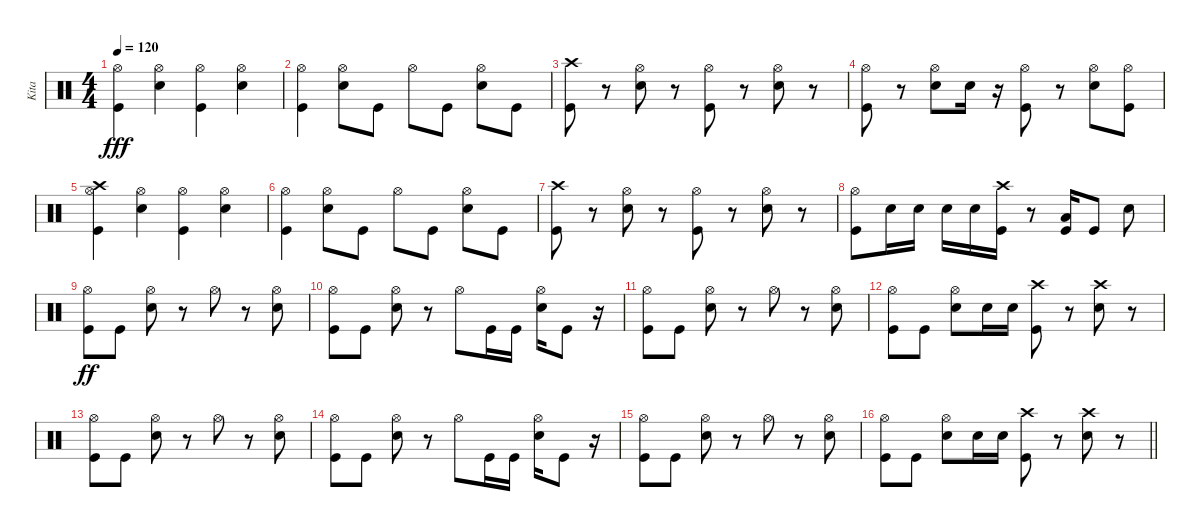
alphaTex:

\track ("Kita" "Kita") {instrument percussion}
\staff {score}
\articulation defaults
\ts (4 4)
\tempo 120
\clef neutral
\ks c
("Hi-Hat (open)" "Kick (hit)").4{dy fff} ("Hi-Hat (open)" "Snare (hit) 2").4 ("Hi-Hat (open)" "Kick (hit)").4 ("Hi-Hat (open)" "Snare (hit) 2").4 |
("Hi-Hat (open)" "Kick (hit)").4 ("Hi-Hat (open)" "Snare (hit) 2").8 "Kick (hit)".8 "Hi-Hat (open)".8 "Kick (hit)".8 ("Snare (hit) 2" "Hi-Hat (open)").8 "Kick (hit)".8 |
("Kick (hit)" "Crash high (hit)").8 r.8 ("Hi-Hat (open)" "Snare (hit) 2").8 r.8 ("Hi-Hat (open)" "Kick (hit)").8 r.8 ("Hi-Hat (open)" "Snare (hit) 2").8 r.8 |
("Hi-Hat (open)" "Kick (hit)").8 r.8 ("Hi-Hat (open)" "Snare (hit) 2").8 "Snare (hit) 2".16 r.16 ("Hi-Hat (open)" "Kick (hit)").8 r.8 ("Hi-Hat (open)" "Snare (hit) 2").8 ("Kick (hit)" "Hi-Hat (open)").8 |
("Hi-Hat (open)" "Kick (hit)" "Crash high (hit)").4 ("Hi-Hat (open)" "Snare (hit) 2").4 ("Hi-Hat (open)" "Kick (hit)").4 ("Hi-Hat (open)" "Snare (hit) 2").4 |
("Hi-Hat (open)" "Kick (hit)").4 ("Hi-Hat (open)" "Snare (hit) 2").8 "Kick (hit)".8 "Hi-Hat (open)".8 "Kick (hit)".8 ("Snare (hit) 2" "Hi-Hat (open)").8 "Kick (hit)".8 |
("Kick (hit)" "Crash high (hit)").8 r.8 ("Hi-Hat (open)" "Snare (hit) 2").8 r.8 ("Hi-Hat (open)" "Kick (hit)").8 r.8 ("Hi-Hat (open)" "Snare (hit) 2").8 r.8 |
("Hi-Hat (open)" "Kick (hit)").8 "Snare (hit) 2".16 "Snare (hit) 2".16 "Snare (hit) 2".16 "Snare (hit) 2".16 ("Crash high (hit)" "Kick (hit)").16 r.8 ("Kick (hit)" "Low Tom (hit)").16 "Kick (hit)".8 "Snare (hit) 2".8 |
("Hi-Hat (open)" "Kick (hit)").8{dy ff} "Kick (hit)".8 ("Hi-Hat (open)" "Snare (hit) 2").8 r.8 "Hi-Hat (open)".8 r.8 ("Hi-Hat (open)" "Snare (hit) 2").8 |
("Hi-Hat (open)" "Kick (hit)").8 "Kick (hit)".8 ("Hi-Hat (open)" "Snare (hit) 2").8 r.8 "Hi-Hat (open)".8 "Kick (hit)".16 "Kick (hit)".16 ("Hi-Hat (open)" "Snare (hit) 2").16 "Kick (hit)".8 r.16 |
("Hi-Hat (open)" "Kick (hit)").8 "Kick (hit)".8 ("Hi-Hat (open)" "Snare (hit) 2").8 r.8 "Hi-Hat (open)".8 r.8 ("Hi-Hat (open)" "Snare (hit) 2").8 |
("Hi-Hat (open)" "Kick (hit)").8 "Kick (hit)".8 ("Hi-Hat (open)" "Snare (hit) 2").8 "Snare (hit) 2".16 "Snare (hit) 2".16 ("Crash high (hit)" "Kick (hit)").8 r.8 ("Snare (hit) 2" "Crash high (hit)").8 r.8 |
("Hi-Hat (open)" "Kick (hit)").8 "Kick (hit)".8 ("Hi-Hat (open)" "Snare (hit) 2").8 r.8 "Hi-Hat (open)".8 r.8 ("Hi-Hat (open)" "Snare (hit) 2").8 |
("Hi-Hat (open)" "Kick (hit)").8 "Kick (hit)".8 ("Hi-Hat (open)" "Snare (hit) 2").8 r.8 "Hi-Hat (open)".8 "Kick (hit)".16 "Kick (hit)".16 ("Hi-Hat (open)" "Snare (hit) 2").16 "Kick (hit)".8 r.16 |
("Hi-Hat (open)" "Kick (hit)").8 "Kick (hit)".8 ("Hi-Hat (open)" "Snare (hit) 2").8 r.8 "Hi-Hat (open)".8 r.8 ("Hi-Hat (open)" "Snare (hit) 2").8 |
\barLineRight lightlight
("Hi-Hat (open)" "Kick (hit)").8 "Kick (hit)".8 ("Hi-Hat (open)" "Snare (hit) 2").8 "Snare (hit) 2".16 "Snare (hit) 2".16 ("Crash high (hit)" "Kick (hit)").8 r.8 ("Snare (hit) 2" "Crash high (hit)").8 r.8
